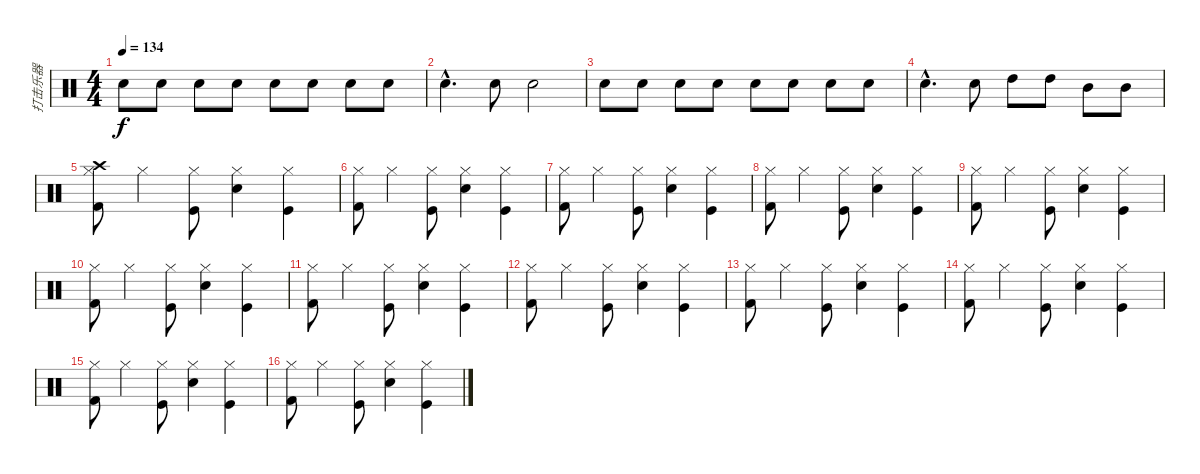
\track ("打击乐器" "打击乐器") {instrument percussion}
\staff {score}
\articulation defaults
\ts (4 4)
\tempo 134
\clef neutral
\ks c "Snare (hit) 2".8{dy f volume 2} "Snare (hit) 2".8{volume 3} "Snare (hit) 2".8{volume 3} "Snare (hit) 2".8{volume 4} "Snare (hit) 2".8{volume 4} "Snare (hit) 2".8{volume 5} "Snare (hit) 2".8{volume 5} "Snare (hit) 2".8{volume 6}
|
"Snare (hit) 2"{hac}.4{d} "Snare (hit) 2".8 "Snare (hit) 2".2 |
"Snare (hit) 2".8{volume 2} "Snare (hit) 2".8{volume 3} "Snare (hit) 2".8{volume 3} "Snare (hit) 2".8{volume 4} "Snare (hit) 2".8{volume 4} "Snare (hit) 2".8{volume 5} "Snare (hit) 2".8{volume 5} "Snare (hit) 2".8{volume 6} |
"Snare (hit) 2"{hac}.4{d} "Snare (hit) 2".8 "High Tom (hit)".8 "High Tom (hit)".8 "Mid Tom (hit)".8 "Mid Tom (hit)".8 |
("Kick (hit) 2" "Hi-Hat (closed)" "Crash high (hit)").8 "Hi-Hat (closed)".4 ("Hi-Hat (closed)" "Kick (hit)").8 ("Snare (hit) 2" "Hi-Hat (closed)").4 ("Kick (hit)" "Hi-Hat (closed)").4 |
("Kick (hit) 2" "Hi-Hat (closed)").8 "Hi-Hat (closed)".4 ("Hi-Hat (closed)" "Kick (hit)").8 ("Snare (hit) 2" "Hi-Hat (closed)").4 ("Kick (hit)" "Hi-Hat (closed)").4 |
("Kick (hit) 2" "Hi-Hat (closed)").8 "Hi-Hat (closed)".4 ("Hi-Hat (closed)" "Kick (hit)").8 ("Snare (hit) 2" "Hi-Hat (closed)").4 ("Kick (hit)" "Hi-Hat (closed)").4 |
("Kick (hit) 2" "Hi-Hat (closed)").8 "Hi-Hat (closed)".4 ("Hi-Hat (closed)" "Kick (hit)").8 ("Snare (hit) 2" "Hi-Hat (closed)").4 ("Kick (hit)" "Hi-Hat (closed)").4 |
("Kick (hit) 2" "Hi-Hat (closed)").8 "Hi-Hat (closed)".4 ("Hi-Hat (closed)" "Kick (hit)").8 ("Snare (hit) 2" "Hi-Hat (closed)").4 ("Kick (hit)" "Hi-Hat (closed)").4 |
("Kick (hit) 2" "Hi-Hat (closed)").8 "Hi-Hat (closed)".4 ("Hi-Hat (closed)" "Kick (hit)").8 ("Snare (hit) 2" "Hi-Hat (closed)").4 ("Kick (hit)" "Hi-Hat (closed)").4 |
("Kick (hit) 2" "Hi-Hat (closed)").8 "Hi-Hat (closed)".4 ("Hi-Hat (closed)" "Kick (hit)").8 ("Snare (hit) 2" "Hi-Hat (closed)").4 ("Kick (hit)" "Hi-Hat (closed)").4 |
("Kick (hit) 2" "Hi-Hat (closed)").8 "Hi-Hat (closed)".4 ("Hi-Hat (closed)" "Kick (hit)").8 ("Snare (hit) 2" "Hi-Hat (closed)").4 ("Kick (hit)" "Hi-Hat (closed)").4 |
("Kick (hit) 2" "Hi-Hat (closed)").8 "Hi-Hat (closed)".4 ("Hi-Hat (closed)" "Kick (hit)").8 ("Snare (hit) 2" "Hi-Hat (closed)").4 ("Kick (hit)" "Hi-Hat (closed)").4 |
("Kick (hit) 2" "Hi-Hat (closed)").8 "Hi-Hat (closed)".4 ("Hi-Hat (closed)" "Kick (hit)").8 ("Snare (hit) 2" "Hi-Hat (closed)").4 ("Kick (hit)" "Hi-Hat (closed)").4 |
("Kick (hit) 2" "Hi-Hat (closed)").8 "Hi-Hat (closed)".4 ("Hi-Hat (closed)" "Kick (hit)").8 ("Snare (hit) 2" "Hi-Hat (closed)").4 ("Kick (hit)" "Hi-Hat (closed)").4 |
("Kick (hit) 2" "Hi-Hat (closed)").8 "Hi-Hat (closed)".4 ("Hi-Hat (closed)" "Kick (hit)").8 ("Snare (hit) 2" "Hi-Hat (closed)").4 ("Kick (hit)" "Hi-Hat (closed)").4
